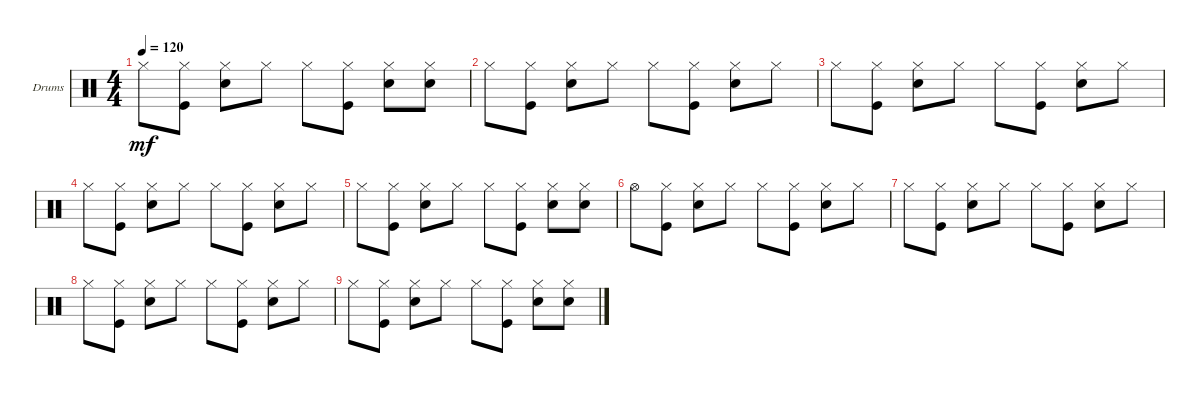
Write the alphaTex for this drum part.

\bracketExtendMode groupsimilarinstruments
\firstSystemTrackNameOrientation horizontal
\otherSystemsTrackNameOrientation horizontal
\track ("Drumkit" "Drums") {solo instrument percussion}
\staff {score}
\articulation defaults
\ts (4 4)
\tempo 120
\clef neutral
\ks c "Hi-Hat (closed)".8{dy mf}
("Kick (hit)" "Hi-Hat (closed)").8 ("Snare (hit) 2" "Hi-Hat (closed)").8 "Hi-Hat (closed)".8 "Hi-Hat (closed)".8 ("Kick (hit)" "Hi-Hat (closed)").8 ("Snare (hit) 2" "Hi-Hat (closed)").8 ("Hi-Hat (closed)" "Snare (hit) 2").8 |
"Hi-Hat (closed)".8 ("Kick (hit)" "Hi-Hat (closed)").8 ("Snare (hit) 2" "Hi-Hat (closed)").8 "Hi-Hat (closed)".8 "Hi-Hat (closed)".8 ("Kick (hit)" "Hi-Hat (closed)").8 ("Snare (hit) 2" "Hi-Hat (closed)").8 "Hi-Hat (closed)".8 |
"Hi-Hat (closed)".8 ("Kick (hit)" "Hi-Hat (closed)").8 ("Snare (hit) 2" "Hi-Hat (closed)").8 "Hi-Hat (closed)".8 "Hi-Hat (closed)".8 ("Kick (hit)" "Hi-Hat (closed)").8 ("Snare (hit) 2" "Hi-Hat (closed)").8 "Hi-Hat (closed)".8 |
"Hi-Hat (closed)".8 ("Kick (hit)" "Hi-Hat (closed)").8 ("Hi-Hat (closed)" "Snare (hit) 2").8 "Hi-Hat (closed)".8 "Hi-Hat (closed)".8 ("Kick (hit)" "Hi-Hat (closed)").8 ("Snare (hit) 2" "Hi-Hat (closed)").8 "Hi-Hat (closed)".8 |
"Hi-Hat (closed)".8 ("Kick (hit)" "Hi-Hat (closed)").8 ("Snare (hit) 2" "Hi-Hat (closed)").8 "Hi-Hat (closed)".8 "Hi-Hat (closed)".8 ("Kick (hit)" "Hi-Hat (closed)").8 ("Snare (hit) 2" "Hi-Hat (closed)").8 ("Hi-Hat (closed)" "Snare (hit) 2").8 |
"Hi-Hat (open)".8 ("Kick (hit)" "Hi-Hat (closed)").8 ("Snare (hit) 2" "Hi-Hat (closed)").8 "Hi-Hat (closed)".8 "Hi-Hat (closed)".8 ("Kick (hit)" "Hi-Hat (closed)").8 ("Snare (hit) 2" "Hi-Hat (closed)").8 "Hi-Hat (closed)".8 |
"Hi-Hat (closed)".8 ("Kick (hit)" "Hi-Hat (closed)").8 ("Snare (hit) 2" "Hi-Hat (closed)").8 "Hi-Hat (closed)".8 "Hi-Hat (closed)".8 ("Kick (hit)" "Hi-Hat (closed)").8 ("Snare (hit) 2" "Hi-Hat (closed)").8 "Hi-Hat (closed)".8 |
"Hi-Hat (closed)".8 ("Kick (hit)" "Hi-Hat (closed)").8 ("Hi-Hat (closed)" "Snare (hit) 2").8 "Hi-Hat (closed)".8 "Hi-Hat (closed)".8 ("Kick (hit)" "Hi-Hat (closed)").8 ("Snare (hit) 2" "Hi-Hat (closed)").8 "Hi-Hat (closed)".8 |
"Hi-Hat (closed)".8 ("Kick (hit)" "Hi-Hat (closed)").8 ("Snare (hit) 2" "Hi-Hat (closed)").8 "Hi-Hat (closed)".8 "Hi-Hat (closed)".8 ("Kick (hit)" "Hi-Hat (closed)").8 ("Snare (hit) 2" "Hi-Hat (closed)").8 ("Hi-Hat (closed)" "Snare (hit) 2").8
